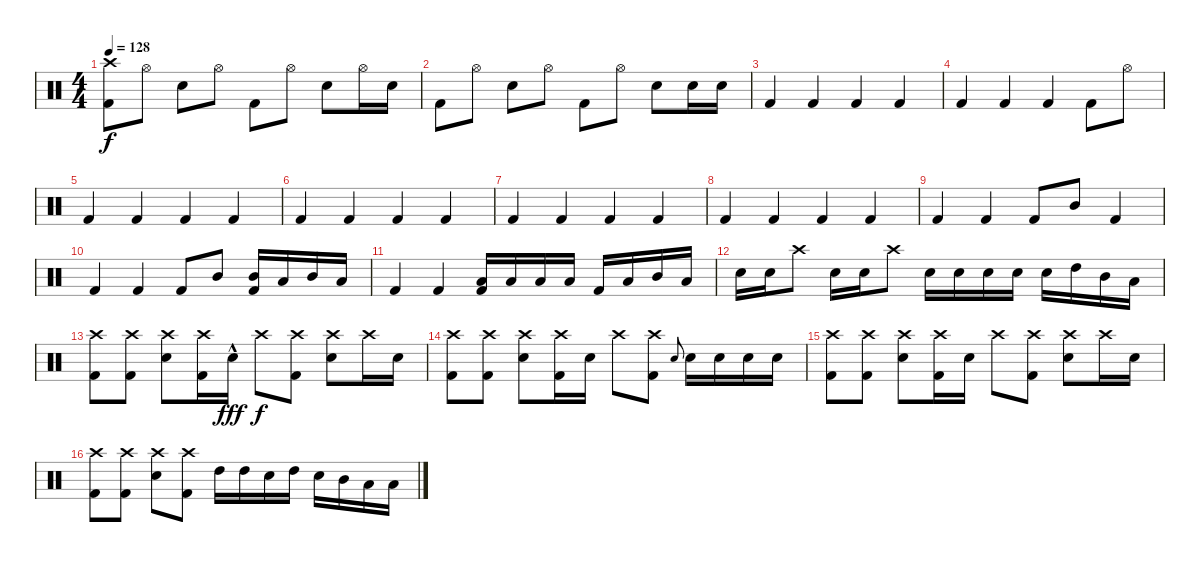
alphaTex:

\track "" {solo instrument percussion}
\staff {score}
\articulation defaults
\ts (4 4)
\tempo 128
\clef neutral
\ks c
("Crash high (hit)" "Kick (hit) 2").8{dy f} "Hi-Hat (open)".8 "Snare (hit) 2".8 "Hi-Hat (open)".8 "Kick (hit) 2".8 "Hi-Hat (open)".8 "Snare (hit) 2".8 "Hi-Hat (open)".16 "Snare (hit) 2".16 |
"Kick (hit) 2".8 "Hi-Hat (open)".8 "Snare (hit) 2".8 "Hi-Hat (open)".8 "Kick (hit) 2".8 "Hi-Hat (open)".8 "Snare (hit) 2".8 "Snare (hit) 2".16 "Snare (hit) 2".16 |
"Kick (hit) 2".4 "Kick (hit) 2".4 "Kick (hit) 2".4 "Kick (hit) 2".4 |
"Kick (hit) 2".4 "Kick (hit) 2".4 "Kick (hit) 2".4 "Kick (hit) 2".8 "Hi-Hat (open)".8 |
"Kick (hit) 2".4 "Kick (hit) 2".4 "Kick (hit) 2".4 "Kick (hit) 2".4 |
"Kick (hit) 2".4 "Kick (hit) 2".4 "Kick (hit) 2".4 "Kick (hit) 2".4 |
"Kick (hit) 2".4 "Kick (hit) 2".4 "Kick (hit) 2".4 "Kick (hit) 2".4 |
"Kick (hit) 2".4 "Kick (hit) 2".4 "Kick (hit) 2".4 "Kick (hit) 2".4 |
"Kick (hit) 2".4 "Kick (hit) 2".4 "Kick (hit) 2".8 "Mid Tom (hit)".8 "Kick (hit) 2".4 |
"Kick (hit) 2".4 "Kick (hit) 2".4 "Kick (hit) 2".8 "Mid Tom (hit)".8 ("Mid Tom (hit)" "Kick (hit) 2").16 "Low Tom (hit)".16 "Mid Tom (hit)".16 "Low Tom (hit)".16 |
"Kick (hit) 2".4 "Kick (hit) 2".4 ("Low Tom (hit)" "Kick (hit) 2").16 "Low Tom (hit)".16 "Low Tom (hit)".16 "Low Tom (hit)".16 "Kick (hit) 2".16 "Low Tom (hit)".16 "Mid Tom (hit)".16 "Low Tom (hit)".16 |
"Snare (hit) 2".16 "Snare (hit) 2".16 "Crash high (hit)".8 "Snare (hit) 2".16 "Snare (hit) 2".16 "Crash high (hit)".8 "Snare (hit) 2".16 "Snare (hit) 2".16 "Snare (hit) 2".16 "Snare (hit) 2".16 "Snare (hit) 2".16 "High Tom (hit)".16 "Mid Tom (hit)".16 "Low Tom (hit)".16 |
("Crash high (hit)" "Kick (hit) 2").8 ("Crash high (hit)" "Kick (hit) 2").8 ("Crash high (hit)" "Snare (hit) 2").8 ("Crash high (hit)" "Kick (hit) 2").16 "Snare (hit) 2"{hac}.16{dy fff} "Crash high (hit)".8{dy f} ("Crash high (hit)" "Kick (hit) 2").8 ("Crash high (hit)" "Snare (hit) 2").8 "Crash high (hit)".16 "Snare (hit) 2".16 |
("Crash high (hit)" "Kick (hit) 2").8 ("Crash high (hit)" "Kick (hit) 2").8 ("Crash high (hit)" "Snare (hit) 2").8 ("Crash high (hit)" "Kick (hit) 2").16 "Snare (hit) 2".16 "Crash high (hit)".8 ("Crash high (hit)" "Kick (hit) 2").8 "Snare (hit) 2".8{gr onbeat} "Snare (hit) 2".16 "Snare (hit) 2".16 "Snare (hit) 2".16 "Snare (hit) 2".16 |
("Crash high (hit)" "Kick (hit) 2").8 ("Crash high (hit)" "Kick (hit) 2").8 ("Crash high (hit)" "Snare (hit) 2").8 ("Crash high (hit)" "Kick (hit) 2").16 "Snare (hit) 2".16 "Crash high (hit)".8 ("Crash high (hit)" "Kick (hit) 2").8 ("Crash high (hit)" "Snare (hit) 2").8 "Crash high (hit)".16 "Snare (hit) 2".16 |
("Crash high (hit)" "Kick (hit) 2").8 ("Crash high (hit)" "Kick (hit) 2").8 ("Crash high (hit)" "Snare (hit) 2").8 ("Crash high (hit)" "Kick (hit) 2").8 "High Tom (hit)".16 "High Tom (hit)".16 "Snare (hit) 2".16 "High Tom (hit)".16 "Snare (hit) 2".16 "Mid Tom (hit)".16 "Low Tom (hit)".16 "Low Tom (hit)".16
